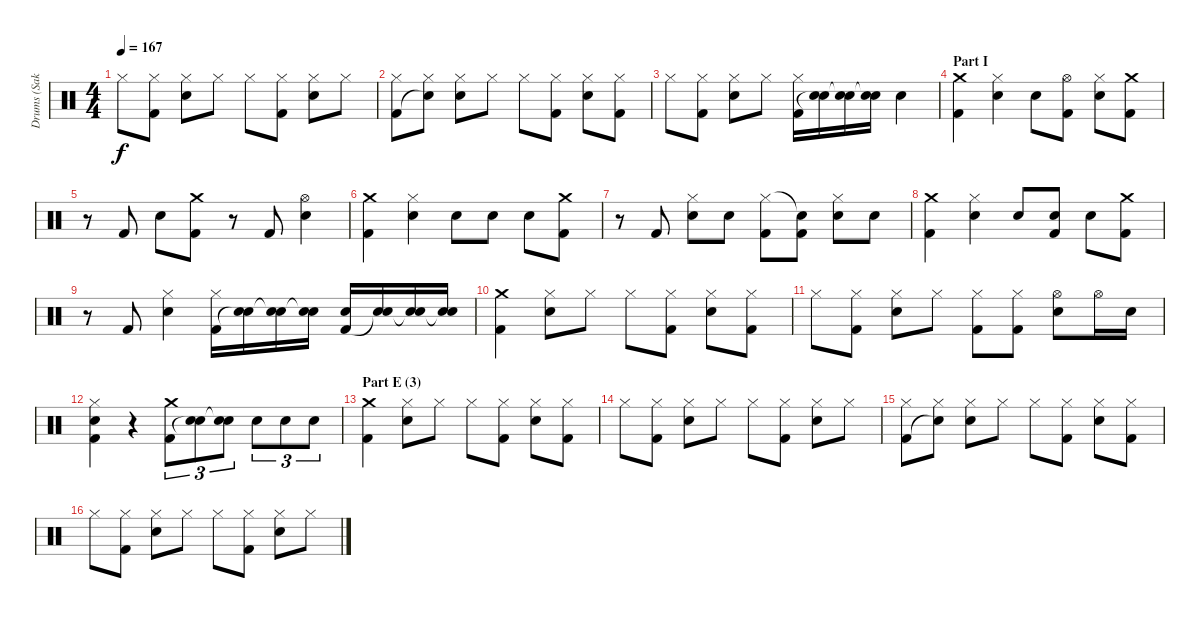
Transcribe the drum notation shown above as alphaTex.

\track ("Drums (Sakura)" "Drums (Sak") {instrument percussion}
\staff {score}
\articulation defaults
\ts (4 4)
\tempo 167
\clef neutral
\ks c "Hi-Hat (closed)".8{dy f}
("Hi-Hat (closed)" "Kick (hit) 2").8 ("Hi-Hat (closed)" "Electric Snare (hit)").8 "Hi-Hat (closed)".8 "Hi-Hat (closed)".8 ("Hi-Hat (closed)" "Kick (hit) 2").8 ("Hi-Hat (closed)" "Electric Snare (hit)").8 "Hi-Hat (closed)".8 |
("Hi-Hat (closed)" "Kick (hit) 2").8 ("Hi-Hat (closed)" "Snare (hit)"{t}).8 ("Hi-Hat (closed)" "Electric Snare (hit)").8 "Hi-Hat (closed)".8 "Hi-Hat (closed)".8 ("Hi-Hat (closed)" "Kick (hit) 2").8 ("Hi-Hat (closed)" "Electric Snare (hit)").8 ("Hi-Hat (closed)" "Kick (hit) 2").8 |
"Hi-Hat (closed)".8 ("Hi-Hat (closed)" "Kick (hit) 2").8 ("Hi-Hat (closed)" "Electric Snare (hit)").8 "Hi-Hat (closed)".8 ("Hi-Hat (closed)" "Kick (hit) 2").16 ("Electric Snare (hit)" "Snare (hit)"{t}).16 ("Electric Snare (hit)" "Snare (hit)"{t}).16 ("Electric Snare (hit)" "Snare (hit)"{t}).16 "Electric Snare (hit)".4 |
\section ("" "Part I")
("Crash medium (hit)" "Kick (hit) 2").4 ("Hi-Hat (closed)" "Electric Snare (hit)").4 "Electric Snare (hit)".8 ("Hi-Hat (open)" "Kick (hit) 2").8 ("Hi-Hat (closed)" "Electric Snare (hit)").8 ("Crash medium (hit)" "Kick (hit) 2").8 |
r.8 "Kick (hit) 2".8 "Electric Snare (hit)".8 ("Crash medium (hit)" "Kick (hit) 2").8 r.8 "Kick (hit) 2".8 ("Hi-Hat (open)" "Electric Snare (hit)").4 |
("Crash medium (hit)" "Kick (hit) 2").4 ("Hi-Hat (closed)" "Electric Snare (hit)").4 "Electric Snare (hit)".8 "Electric Snare (hit)".8 "Electric Snare (hit)".8 ("Crash medium (hit)" "Kick (hit) 2").8 |
r.8 "Kick (hit) 2".8 ("Hi-Hat (closed)" "Electric Snare (hit)").8 "Electric Snare (hit)".8 ("Hi-Hat (closed)" "Kick (hit) 2").8 ("Snare (hit)"{t} "Kick (hit) 2").8 ("Hi-Hat (closed)" "Electric Snare (hit)").8 "Electric Snare (hit)".8 |
("Crash medium (hit)" "Kick (hit) 2").4 ("Hi-Hat (closed)" "Electric Snare (hit)").4 "Electric Snare (hit)".8 ("Electric Snare (hit)" "Kick (hit) 2").8 "Electric Snare (hit)".8 ("Crash medium (hit)" "Kick (hit) 2").8 |
r.8 "Kick (hit) 2".8 ("Hi-Hat (closed)" "Electric Snare (hit)").4 ("Hi-Hat (closed)" "Kick (hit) 2").16 ("Electric Snare (hit)" "Snare (hit)"{t}).16 ("Electric Snare (hit)" "Snare (hit)"{t}).16 ("Electric Snare (hit)" "Snare (hit)"{t}).16 ("Electric Snare (hit)" "Kick (hit) 2").16 ("Electric Snare (hit)" "Snare (hit)"{t}).16 ("Electric Snare (hit)" "Snare (hit)"{t}).16 ("Electric Snare (hit)" "Snare (hit)"{t}).16 |
("Crash medium (hit)" "Kick (hit) 2").4 ("Hi-Hat (closed)" "Electric Snare (hit)").8 "Hi-Hat (closed)".8 "Hi-Hat (closed)".8 ("Hi-Hat (closed)" "Kick (hit) 2").8 ("Hi-Hat (closed)" "Electric Snare (hit)").8 ("Hi-Hat (closed)" "Kick (hit) 2").8 |
"Hi-Hat (closed)".8 ("Hi-Hat (closed)" "Kick (hit) 2").8 ("Hi-Hat (closed)" "Electric Snare (hit)").8 "Hi-Hat (closed)".8 ("Hi-Hat (closed)" "Kick (hit) 2").8 ("Hi-Hat (closed)" "Kick (hit) 2").8 ("Hi-Hat (open)" "Electric Snare (hit)").8 "Hi-Hat (open)".16 "Electric Snare (hit)".16 |
("Hi-Hat (closed)" "Electric Snare (hit)" "Kick (hit) 2").4 r.4 ("Crash medium (hit)" "Kick (hit) 2").8{tu (3 2)} ("Electric Snare (hit)" "Snare (hit)"{t}).8{tu (3 2)} ("Electric Snare (hit)" "Snare (hit)"{t}).8{tu (3 2)} "Electric Snare (hit)".8{tu (3 2)} "Electric Snare (hit)".8{tu (3 2)} "Electric Snare (hit)".8{tu (3 2)} |
\section ("" "Part E (3)")
("Crash medium (hit)" "Kick (hit) 2").4 ("Hi-Hat (closed)" "Electric Snare (hit)").8 "Hi-Hat (closed)".8 "Hi-Hat (closed)".8 ("Hi-Hat (closed)" "Kick (hit) 2").8 ("Hi-Hat (closed)" "Electric Snare (hit)").8 ("Hi-Hat (closed)" "Kick (hit) 2").8 |
"Hi-Hat (closed)".8 ("Hi-Hat (closed)" "Kick (hit) 2").8 ("Hi-Hat (closed)" "Electric Snare (hit)").8 "Hi-Hat (closed)".8 "Hi-Hat (closed)".8 ("Hi-Hat (closed)" "Kick (hit) 2").8 ("Hi-Hat (closed)" "Electric Snare (hit)").8 "Hi-Hat (closed)".8 |
("Hi-Hat (closed)" "Kick (hit) 2").8 ("Hi-Hat (closed)" "Snare (hit)"{t}).8 ("Hi-Hat (closed)" "Electric Snare (hit)").8 "Hi-Hat (closed)".8 "Hi-Hat (closed)".8 ("Hi-Hat (closed)" "Kick (hit) 2").8 ("Hi-Hat (closed)" "Electric Snare (hit)").8 ("Hi-Hat (closed)" "Kick (hit) 2").8 |
"Hi-Hat (closed)".8 ("Hi-Hat (closed)" "Kick (hit) 2").8 ("Hi-Hat (closed)" "Electric Snare (hit)").8 "Hi-Hat (closed)".8 "Hi-Hat (closed)".8 ("Hi-Hat (closed)" "Kick (hit) 2").8 ("Hi-Hat (closed)" "Electric Snare (hit)").8 "Hi-Hat (closed)".8
